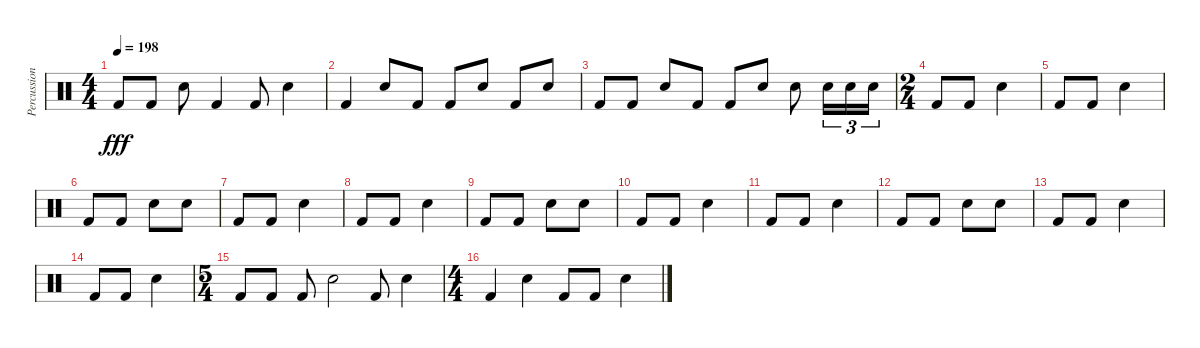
\track ("Percussion" "Percussion") {instrument percussion}
\staff {score}
\articulation defaults
\ts (4 4)
\tempo 198
\clef neutral
\ks c "Kick (hit) 2".8{dy fff} "Kick (hit) 2".8 "Electric Snare (hit)".8 "Kick (hit) 2".4 "Kick (hit) 2".8 "Electric Snare (hit)".4
|
"Kick (hit) 2".4 "Electric Snare (hit)".8 "Kick (hit) 2".8 "Kick (hit) 2".8 "Electric Snare (hit)".8 "Kick (hit) 2".8 "Electric Snare (hit)".8 |
"Kick (hit) 2".8 "Kick (hit) 2".8 "Electric Snare (hit)".8 "Kick (hit) 2".8 "Kick (hit) 2".8 "Electric Snare (hit)".8 "Electric Snare (hit)".8 "Electric Snare (hit)".16{tu (3 2)} "Electric Snare (hit)".16{tu (3 2)} "Electric Snare (hit)".16{tu (3 2)} |
\ts (2 4)
"Kick (hit) 2".8 "Kick (hit) 2".8 "Electric Snare (hit)".4 |
"Kick (hit) 2".8 "Kick (hit) 2".8 "Electric Snare (hit)".4 |
"Kick (hit) 2".8 "Kick (hit) 2".8 "Electric Snare (hit)".8 "Electric Snare (hit)".8 |
"Kick (hit) 2".8 "Kick (hit) 2".8 "Electric Snare (hit)".4 |
"Kick (hit) 2".8 "Kick (hit) 2".8 "Electric Snare (hit)".4 |
"Kick (hit) 2".8 "Kick (hit) 2".8 "Electric Snare (hit)".8 "Electric Snare (hit)".8 |
"Kick (hit) 2".8 "Kick (hit) 2".8 "Electric Snare (hit)".4 |
"Kick (hit) 2".8 "Kick (hit) 2".8 "Electric Snare (hit)".4 |
"Kick (hit) 2".8 "Kick (hit) 2".8 "Electric Snare (hit)".8 "Electric Snare (hit)".8 |
"Kick (hit) 2".8 "Kick (hit) 2".8 "Electric Snare (hit)".4 |
"Kick (hit) 2".8 "Kick (hit) 2".8 "Electric Snare (hit)".4 |
\ts (5 4)
"Kick (hit) 2".8 "Kick (hit) 2".8 "Kick (hit) 2".8 "Electric Snare (hit)".2 "Kick (hit) 2".8 "Electric Snare (hit)".4 |
\ts (4 4)
"Kick (hit) 2".4 "Electric Snare (hit)".4 "Kick (hit) 2".8 "Kick (hit) 2".8 "Electric Snare (hit)".4
